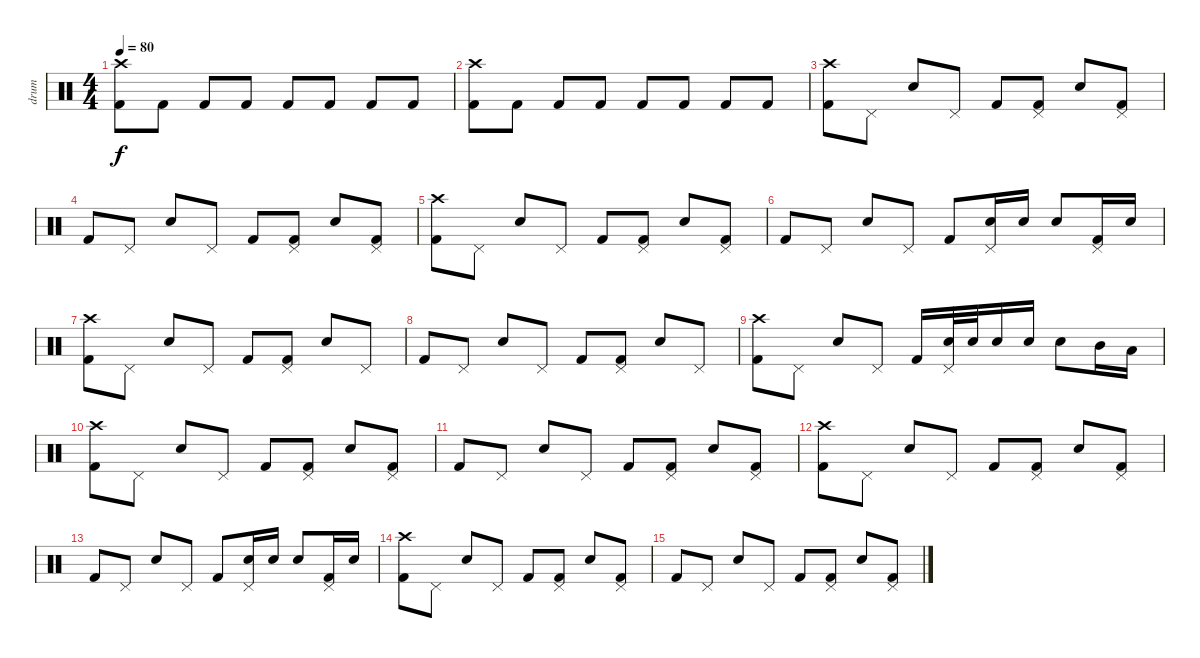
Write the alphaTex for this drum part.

\track ("drum" "drum") {instrument percussion}
\staff {score}
\articulation defaults
\ts (4 4)
\tempo 80
\clef neutral
\ks c
("Crash high (hit)" "Kick (hit) 2").8{dy f} "Kick (hit) 2".8 "Kick (hit) 2".8 "Kick (hit) 2".8 "Kick (hit) 2".8 "Kick (hit) 2".8 "Kick (hit) 2".8 "Kick (hit) 2".8 |
("Crash high (hit)" "Kick (hit) 2").8 "Kick (hit) 2".8 "Kick (hit) 2".8 "Kick (hit) 2".8 "Kick (hit) 2".8 "Kick (hit) 2".8 "Kick (hit) 2".8 "Kick (hit) 2".8 |
("Crash high (hit)" "Kick (hit) 2").8 "Pedal Hi-Hat (hit)".8 "Snare (hit) 2".8 "Pedal Hi-Hat (hit)".8 "Kick (hit) 2".8 ("Pedal Hi-Hat (hit)" "Kick (hit) 2").8 "Snare (hit) 2".8 ("Pedal Hi-Hat (hit)" "Kick (hit) 2").8 |
"Kick (hit) 2".8 "Pedal Hi-Hat (hit)".8 "Snare (hit) 2".8 "Pedal Hi-Hat (hit)".8 "Kick (hit) 2".8 ("Pedal Hi-Hat (hit)" "Kick (hit) 2").8 "Snare (hit) 2".8 ("Pedal Hi-Hat (hit)" "Kick (hit) 2").8 |
("Crash high (hit)" "Kick (hit) 2").8 "Pedal Hi-Hat (hit)".8 "Snare (hit) 2".8 "Pedal Hi-Hat (hit)".8 "Kick (hit) 2".8 ("Pedal Hi-Hat (hit)" "Kick (hit) 2").8 "Snare (hit) 2".8 ("Pedal Hi-Hat (hit)" "Kick (hit) 2").8 |
"Kick (hit) 2".8 "Pedal Hi-Hat (hit)".8 "Snare (hit) 2".8 "Pedal Hi-Hat (hit)".8 "Kick (hit) 2".8 ("Pedal Hi-Hat (hit)" "Snare (hit) 2").16 "Snare (hit) 2".16 "Snare (hit) 2".8 ("Pedal Hi-Hat (hit)" "Kick (hit) 2").16 "Snare (hit) 2".16 |
("Crash high (hit)" "Kick (hit) 2").8 "Pedal Hi-Hat (hit)".8 "Snare (hit) 2".8 "Pedal Hi-Hat (hit)".8 "Kick (hit) 2".8 ("Pedal Hi-Hat (hit)" "Kick (hit) 2").8 "Snare (hit) 2".8 "Pedal Hi-Hat (hit)".8 |
"Kick (hit) 2".8 "Pedal Hi-Hat (hit)".8 "Snare (hit) 2".8 "Pedal Hi-Hat (hit)".8 "Kick (hit) 2".8 ("Pedal Hi-Hat (hit)" "Kick (hit) 2").8 "Snare (hit) 2".8 "Pedal Hi-Hat (hit)".8 |
("Crash high (hit)" "Kick (hit) 2").8 "Pedal Hi-Hat (hit)".8 "Snare (hit) 2".8 "Pedal Hi-Hat (hit)".8 "Kick (hit) 2".16 ("Pedal Hi-Hat (hit)" "Snare (hit) 2").32 "Snare (hit) 2".32 "Snare (hit) 2".16 "Snare (hit) 2".16 "Snare (hit) 2".8 "Mid Tom (hit)".16 "Low Tom (hit)".16 |
("Crash high (hit)" "Kick (hit) 2").8 "Pedal Hi-Hat (hit)".8 "Snare (hit) 2".8 "Pedal Hi-Hat (hit)".8 "Kick (hit) 2".8 ("Pedal Hi-Hat (hit)" "Kick (hit) 2").8 "Snare (hit) 2".8 ("Pedal Hi-Hat (hit)" "Kick (hit) 2").8 |
"Kick (hit) 2".8{volume 0} "Pedal Hi-Hat (hit)".8 "Snare (hit) 2".8 "Pedal Hi-Hat (hit)".8 "Kick (hit) 2".8 ("Pedal Hi-Hat (hit)" "Kick (hit) 2").8 "Snare (hit) 2".8 ("Pedal Hi-Hat (hit)" "Kick (hit) 2").8 |
("Crash high (hit)" "Kick (hit) 2").8 "Pedal Hi-Hat (hit)".8 "Snare (hit) 2".8 "Pedal Hi-Hat (hit)".8 "Kick (hit) 2".8 ("Pedal Hi-Hat (hit)" "Kick (hit) 2").8 "Snare (hit) 2".8 ("Pedal Hi-Hat (hit)" "Kick (hit) 2").8 |
"Kick (hit) 2".8 "Pedal Hi-Hat (hit)".8 "Snare (hit) 2".8 "Pedal Hi-Hat (hit)".8 "Kick (hit) 2".8 ("Pedal Hi-Hat (hit)" "Snare (hit) 2").16 "Snare (hit) 2".16 "Snare (hit) 2".8 ("Pedal Hi-Hat (hit)" "Kick (hit) 2").16 "Snare (hit) 2".16 |
("Crash high (hit)" "Kick (hit) 2").8 "Pedal Hi-Hat (hit)".8 "Snare (hit) 2".8 "Pedal Hi-Hat (hit)".8 "Kick (hit) 2".8 ("Pedal Hi-Hat (hit)" "Kick (hit) 2").8 "Snare (hit) 2".8 ("Pedal Hi-Hat (hit)" "Kick (hit) 2").8 |
"Kick (hit) 2".8 "Pedal Hi-Hat (hit)".8 "Snare (hit) 2".8 "Pedal Hi-Hat (hit)".8 "Kick (hit) 2".8 ("Pedal Hi-Hat (hit)" "Kick (hit) 2").8 "Snare (hit) 2".8 ("Pedal Hi-Hat (hit)" "Kick (hit) 2").8
